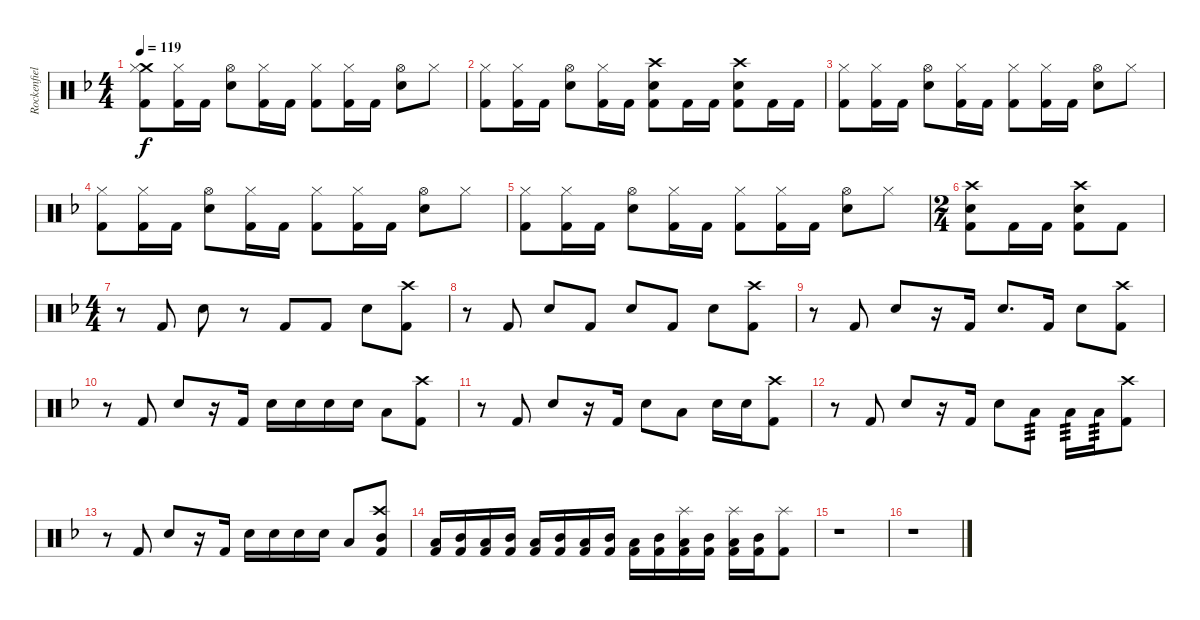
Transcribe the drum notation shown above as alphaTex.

\track ("Rockenfield" "Rockenfiel") {instrument percussion}
\staff {score}
\articulation defaults
\ts (4 4)
\tempo 119
\clef neutral
\ks dminor
("Crash medium (hit)" "Hi-Hat (closed)" "Kick (hit) 2").8{dy f} ("Hi-Hat (closed)" "Kick (hit) 2").16 "Kick (hit) 2".16 ("Hi-Hat (open)" "Snare (hit) 2").8 ("Hi-Hat (closed)" "Kick (hit) 2").16 "Kick (hit) 2".16 ("Hi-Hat (closed)" "Kick (hit) 2").8 ("Hi-Hat (closed)" "Kick (hit) 2").16 "Kick (hit) 2".16 ("Hi-Hat (open)" "Snare (hit) 2").8 "Hi-Hat (closed)".8 |
("Hi-Hat (closed)" "Kick (hit) 2").8 ("Hi-Hat (closed)" "Kick (hit) 2").16 "Kick (hit) 2".16 ("Hi-Hat (open)" "Snare (hit) 2").8 ("Hi-Hat (closed)" "Kick (hit) 2").16 "Kick (hit) 2".16 ("Crash high (hit)" "Kick (hit) 2" "Snare (hit) 2").8 "Kick (hit) 2".16 "Kick (hit) 2".16 ("Crash high (hit)" "Kick (hit) 2" "Snare (hit) 2").8 "Kick (hit) 2".16 "Kick (hit) 2".16 |
("Hi-Hat (closed)" "Kick (hit) 2").8 ("Hi-Hat (closed)" "Kick (hit) 2").16 "Kick (hit) 2".16 ("Hi-Hat (open)" "Snare (hit) 2").8 ("Hi-Hat (closed)" "Kick (hit) 2").16 "Kick (hit) 2".16 ("Hi-Hat (closed)" "Kick (hit) 2").8 ("Hi-Hat (closed)" "Kick (hit) 2").16 "Kick (hit) 2".16 ("Hi-Hat (open)" "Snare (hit) 2").8 "Hi-Hat (closed)".8 |
("Hi-Hat (closed)" "Kick (hit) 2").8 ("Hi-Hat (closed)" "Kick (hit) 2").16 "Kick (hit) 2".16 ("Hi-Hat (open)" "Snare (hit) 2").8 ("Hi-Hat (closed)" "Kick (hit) 2").16 "Kick (hit) 2".16 ("Hi-Hat (closed)" "Kick (hit) 2").8 ("Hi-Hat (closed)" "Kick (hit) 2").16 "Kick (hit) 2".16 ("Hi-Hat (open)" "Snare (hit) 2").8 "Hi-Hat (closed)".8 |
("Hi-Hat (closed)" "Kick (hit) 2").8 ("Hi-Hat (closed)" "Kick (hit) 2").16 "Kick (hit) 2".16 ("Hi-Hat (open)" "Snare (hit) 2").8 ("Hi-Hat (closed)" "Kick (hit) 2").16 "Kick (hit) 2".16 ("Hi-Hat (closed)" "Kick (hit) 2").8 ("Hi-Hat (closed)" "Kick (hit) 2").16 "Kick (hit) 2".16 ("Hi-Hat (open)" "Snare (hit) 2").8 "Hi-Hat (closed)".8 |
\ts (2 4)
("Crash high (hit)" "Kick (hit) 2" "Snare (hit) 2").8 "Kick (hit) 2".16 "Kick (hit) 2".16 ("Crash high (hit)" "Kick (hit) 2" "Snare (hit) 2").8 "Kick (hit) 2".8 |
\ts (4 4)
r.8 "Kick (hit) 2".8 "Snare (hit) 2".8 r.8 "Kick (hit) 2".8 "Kick (hit) 2".8 "Snare (hit) 2".8 ("Crash high (hit)" "Kick (hit) 2").8 |
r.8 "Kick (hit) 2".8 "Snare (hit) 2".8 "Kick (hit) 2".8 "Snare (hit) 2".8 "Kick (hit) 2".8 "Snare (hit) 2".8 ("Crash high (hit)" "Kick (hit) 2").8 |
r.8 "Kick (hit) 2".8 "Snare (hit) 2".8 r.16 "Kick (hit) 2".16 "Snare (hit) 2".8{d} "Kick (hit) 2".16 "Snare (hit) 2".8 ("Crash high (hit)" "Kick (hit) 2").8 |
r.8 "Kick (hit) 2".8 "Snare (hit) 2".8 r.16 "Kick (hit) 2".16 "Snare (hit) 2".16 "Snare (hit) 2".16 "Snare (hit) 2".16 "Snare (hit) 2".16 "Low Tom (hit)".8 ("Crash high (hit)" "Kick (hit) 2").8 |
r.8 "Kick (hit) 2".8 "Snare (hit) 2".8 r.16 "Kick (hit) 2".16 "Snare (hit) 2".8 "Low Tom (hit)".8 "Snare (hit) 2".16 "Snare (hit) 2".16 ("Crash high (hit)" "Kick (hit) 2").8 |
r.8 "Kick (hit) 2".8 "Snare (hit) 2".8 r.16 "Kick (hit) 2".16 "Snare (hit) 2".8 "Low Tom (hit)".8{tp 3} "Low Tom (hit)".16{tp 3} "Low Tom (hit)".16{tp 3} ("Crash high (hit)" "Kick (hit) 2").8 |
r.8 "Kick (hit) 2".8 "Snare (hit) 2".8 r.16 "Kick (hit) 2".16 "Snare (hit) 2".16 "Snare (hit) 2".16 "Snare (hit) 2".16 "Snare (hit) 2".16 "Low Tom (hit)".8 ("Crash high (hit)" "Kick (hit) 2" "Mid Tom (hit)").8 |
("Kick (hit) 2" "Low Tom (hit)").16 ("Kick (hit) 2" "Mid Tom (hit)").16 ("Kick (hit) 2" "Low Tom (hit)").16 ("Kick (hit) 2" "Mid Tom (hit)").16 ("Kick (hit) 2" "Low Tom (hit)").16 ("Kick (hit) 2" "Mid Tom (hit)").16 ("Kick (hit) 2" "Low Tom (hit)").16 ("Kick (hit) 2" "Mid Tom (hit)").16 ("Kick (hit) 2" "Low Tom (hit)").16 ("Kick (hit) 2" "Mid Tom (hit)").16 ("Splash (hit)" "Kick (hit) 2" "Low Tom (hit)").16 ("Kick (hit) 2" "Mid Tom (hit)").16 ("Splash (hit)" "Kick (hit) 2" "Low Tom (hit)").16 ("Kick (hit) 2" "Mid Tom (hit)").16 ("Splash (hit)" "Kick (hit) 2").8 |
r.1 |
r.1
